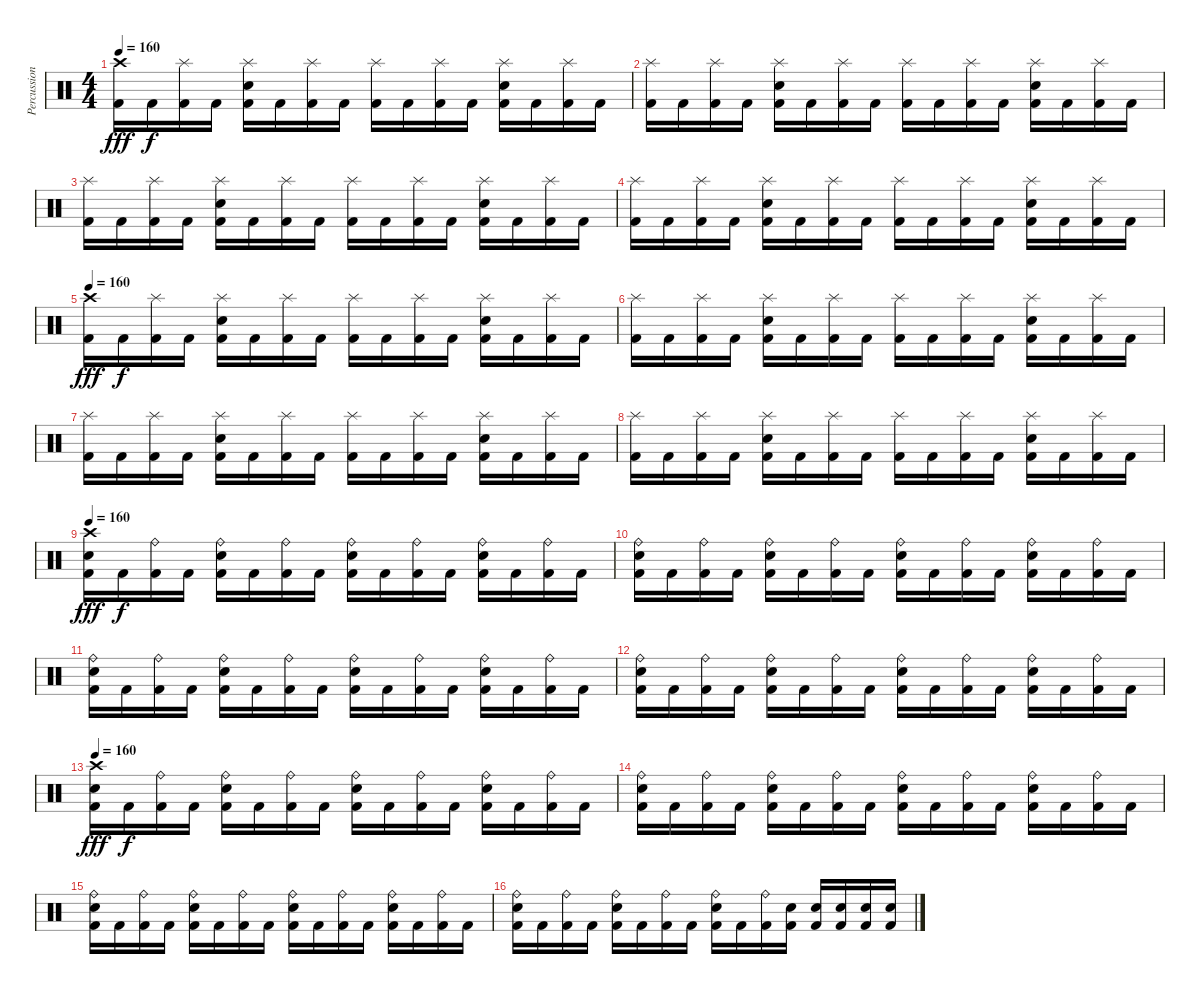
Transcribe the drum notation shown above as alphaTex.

\track ("Percussion" "Percussion") {instrument percussion}
\staff {score}
\articulation defaults
\ts (4 4)
\tempo 160
\clef neutral
\ks c
("Crash high (hit)" "Kick (hit) 2").16{dy fff} "Kick (hit) 2".16{dy f} ("Splash (hit)" "Kick (hit) 2").16 "Kick (hit) 2".16 ("Splash (hit)" "Electric Snare (hit)" "Kick (hit) 2").16 "Kick (hit) 2".16 ("Splash (hit)" "Kick (hit) 2").16 "Kick (hit) 2".16 ("Splash (hit)" "Kick (hit) 2").16 "Kick (hit) 2".16 ("Splash (hit)" "Kick (hit) 2").16 "Kick (hit) 2".16 ("Splash (hit)" "Electric Snare (hit)" "Kick (hit) 2").16 "Kick (hit) 2".16 ("Splash (hit)" "Kick (hit) 2").16 "Kick (hit) 2".16 |
("Splash (hit)" "Kick (hit) 2").16 "Kick (hit) 2".16 ("Splash (hit)" "Kick (hit) 2").16 "Kick (hit) 2".16 ("Splash (hit)" "Electric Snare (hit)" "Kick (hit) 2").16 "Kick (hit) 2".16 ("Splash (hit)" "Kick (hit) 2").16 "Kick (hit) 2".16 ("Splash (hit)" "Kick (hit) 2").16 "Kick (hit) 2".16 ("Splash (hit)" "Kick (hit) 2").16 "Kick (hit) 2".16 ("Splash (hit)" "Electric Snare (hit)" "Kick (hit) 2").16 "Kick (hit) 2".16 ("Splash (hit)" "Kick (hit) 2").16 "Kick (hit) 2".16 |
("Splash (hit)" "Kick (hit) 2").16 "Kick (hit) 2".16 ("Splash (hit)" "Kick (hit) 2").16 "Kick (hit) 2".16 ("Splash (hit)" "Electric Snare (hit)" "Kick (hit) 2").16 "Kick (hit) 2".16 ("Splash (hit)" "Kick (hit) 2").16 "Kick (hit) 2".16 ("Splash (hit)" "Kick (hit) 2").16 "Kick (hit) 2".16 ("Splash (hit)" "Kick (hit) 2").16 "Kick (hit) 2".16 ("Splash (hit)" "Electric Snare (hit)" "Kick (hit) 2").16 "Kick (hit) 2".16 ("Splash (hit)" "Kick (hit) 2").16 "Kick (hit) 2".16 |
("Splash (hit)" "Kick (hit) 2").16 "Kick (hit) 2".16 ("Splash (hit)" "Kick (hit) 2").16 "Kick (hit) 2".16 ("Splash (hit)" "Electric Snare (hit)" "Kick (hit) 2").16 "Kick (hit) 2".16 ("Splash (hit)" "Kick (hit) 2").16 "Kick (hit) 2".16 ("Splash (hit)" "Kick (hit) 2").16 "Kick (hit) 2".16 ("Splash (hit)" "Kick (hit) 2").16 "Kick (hit) 2".16 ("Splash (hit)" "Electric Snare (hit)" "Kick (hit) 2").16 "Kick (hit) 2".16 ("Splash (hit)" "Kick (hit) 2").16 "Kick (hit) 2".16 |
\tempo 160
("Crash high (hit)" "Kick (hit) 2").16{dy fff} "Kick (hit) 2".16{dy f} ("Splash (hit)" "Kick (hit) 2").16 "Kick (hit) 2".16 ("Splash (hit)" "Electric Snare (hit)" "Kick (hit) 2").16 "Kick (hit) 2".16 ("Splash (hit)" "Kick (hit) 2").16 "Kick (hit) 2".16 ("Splash (hit)" "Kick (hit) 2").16 "Kick (hit) 2".16 ("Splash (hit)" "Kick (hit) 2").16 "Kick (hit) 2".16 ("Splash (hit)" "Electric Snare (hit)" "Kick (hit) 2").16 "Kick (hit) 2".16 ("Splash (hit)" "Kick (hit) 2").16 "Kick (hit) 2".16 |
("Splash (hit)" "Kick (hit) 2").16 "Kick (hit) 2".16 ("Splash (hit)" "Kick (hit) 2").16 "Kick (hit) 2".16 ("Splash (hit)" "Electric Snare (hit)" "Kick (hit) 2").16 "Kick (hit) 2".16 ("Splash (hit)" "Kick (hit) 2").16 "Kick (hit) 2".16 ("Splash (hit)" "Kick (hit) 2").16 "Kick (hit) 2".16 ("Splash (hit)" "Kick (hit) 2").16 "Kick (hit) 2".16 ("Splash (hit)" "Electric Snare (hit)" "Kick (hit) 2").16 "Kick (hit) 2".16 ("Splash (hit)" "Kick (hit) 2").16 "Kick (hit) 2".16 |
("Splash (hit)" "Kick (hit) 2").16 "Kick (hit) 2".16 ("Splash (hit)" "Kick (hit) 2").16 "Kick (hit) 2".16 ("Splash (hit)" "Electric Snare (hit)" "Kick (hit) 2").16 "Kick (hit) 2".16 ("Splash (hit)" "Kick (hit) 2").16 "Kick (hit) 2".16 ("Splash (hit)" "Kick (hit) 2").16 "Kick (hit) 2".16 ("Splash (hit)" "Kick (hit) 2").16 "Kick (hit) 2".16 ("Splash (hit)" "Electric Snare (hit)" "Kick (hit) 2").16 "Kick (hit) 2".16 ("Splash (hit)" "Kick (hit) 2").16 "Kick (hit) 2".16 |
("Splash (hit)" "Kick (hit) 2").16 "Kick (hit) 2".16 ("Splash (hit)" "Kick (hit) 2").16 "Kick (hit) 2".16 ("Splash (hit)" "Electric Snare (hit)" "Kick (hit) 2").16 "Kick (hit) 2".16 ("Splash (hit)" "Kick (hit) 2").16 "Kick (hit) 2".16 ("Splash (hit)" "Kick (hit) 2").16 "Kick (hit) 2".16 ("Splash (hit)" "Kick (hit) 2").16 "Kick (hit) 2".16 ("Splash (hit)" "Electric Snare (hit)" "Kick (hit) 2").16 "Kick (hit) 2".16 ("Splash (hit)" "Kick (hit) 2").16 "Kick (hit) 2".16 |
\tempo 160
("Crash high (hit)" "Electric Snare (hit)" "Kick (hit) 2").16{dy fff} "Kick (hit) 2".16{dy f} ("Ride (bell)" "Kick (hit) 2").16 "Kick (hit) 2".16 ("Ride (bell)" "Electric Snare (hit)" "Kick (hit) 2").16 "Kick (hit) 2".16 ("Ride (bell)" "Kick (hit) 2").16 "Kick (hit) 2".16 ("Ride (bell)" "Electric Snare (hit)" "Kick (hit) 2").16 "Kick (hit) 2".16 ("Ride (bell)" "Kick (hit) 2").16 "Kick (hit) 2".16 ("Ride (bell)" "Electric Snare (hit)" "Kick (hit) 2").16 "Kick (hit) 2".16 ("Ride (bell)" "Kick (hit) 2").16 "Kick (hit) 2".16 |
("Ride (bell)" "Electric Snare (hit)" "Kick (hit) 2").16 "Kick (hit) 2".16 ("Ride (bell)" "Kick (hit) 2").16 "Kick (hit) 2".16 ("Ride (bell)" "Electric Snare (hit)" "Kick (hit) 2").16 "Kick (hit) 2".16 ("Ride (bell)" "Kick (hit) 2").16 "Kick (hit) 2".16 ("Ride (bell)" "Electric Snare (hit)" "Kick (hit) 2").16 "Kick (hit) 2".16 ("Ride (bell)" "Kick (hit) 2").16 "Kick (hit) 2".16 ("Ride (bell)" "Electric Snare (hit)" "Kick (hit) 2").16 "Kick (hit) 2".16 ("Ride (bell)" "Kick (hit) 2").16 "Kick (hit) 2".16 |
("Ride (bell)" "Electric Snare (hit)" "Kick (hit) 2").16 "Kick (hit) 2".16 ("Ride (bell)" "Kick (hit) 2").16 "Kick (hit) 2".16 ("Ride (bell)" "Electric Snare (hit)" "Kick (hit) 2").16 "Kick (hit) 2".16 ("Ride (bell)" "Kick (hit) 2").16 "Kick (hit) 2".16 ("Ride (bell)" "Electric Snare (hit)" "Kick (hit) 2").16 "Kick (hit) 2".16 ("Ride (bell)" "Kick (hit) 2").16 "Kick (hit) 2".16 ("Ride (bell)" "Electric Snare (hit)" "Kick (hit) 2").16 "Kick (hit) 2".16 ("Ride (bell)" "Kick (hit) 2").16 "Kick (hit) 2".16 |
("Ride (bell)" "Electric Snare (hit)" "Kick (hit) 2").16 "Kick (hit) 2".16 ("Ride (bell)" "Kick (hit) 2").16 "Kick (hit) 2".16 ("Ride (bell)" "Electric Snare (hit)" "Kick (hit) 2").16 "Kick (hit) 2".16 ("Ride (bell)" "Kick (hit) 2").16 "Kick (hit) 2".16 ("Ride (bell)" "Electric Snare (hit)" "Kick (hit) 2").16 "Kick (hit) 2".16 ("Ride (bell)" "Kick (hit) 2").16 "Kick (hit) 2".16 ("Ride (bell)" "Electric Snare (hit)" "Kick (hit) 2").16 "Kick (hit) 2".16 ("Ride (bell)" "Kick (hit) 2").16 "Kick (hit) 2".16 |
\tempo 160
("Crash high (hit)" "Electric Snare (hit)" "Kick (hit) 2").16{dy fff} "Kick (hit) 2".16{dy f} ("Ride (bell)" "Kick (hit) 2").16 "Kick (hit) 2".16 ("Ride (bell)" "Electric Snare (hit)" "Kick (hit) 2").16 "Kick (hit) 2".16 ("Ride (bell)" "Kick (hit) 2").16 "Kick (hit) 2".16 ("Ride (bell)" "Electric Snare (hit)" "Kick (hit) 2").16 "Kick (hit) 2".16 ("Ride (bell)" "Kick (hit) 2").16 "Kick (hit) 2".16 ("Ride (bell)" "Electric Snare (hit)" "Kick (hit) 2").16 "Kick (hit) 2".16 ("Ride (bell)" "Kick (hit) 2").16 "Kick (hit) 2".16 |
("Ride (bell)" "Electric Snare (hit)" "Kick (hit) 2").16 "Kick (hit) 2".16 ("Ride (bell)" "Kick (hit) 2").16 "Kick (hit) 2".16 ("Ride (bell)" "Electric Snare (hit)" "Kick (hit) 2").16 "Kick (hit) 2".16 ("Ride (bell)" "Kick (hit) 2").16 "Kick (hit) 2".16 ("Ride (bell)" "Electric Snare (hit)" "Kick (hit) 2").16 "Kick (hit) 2".16 ("Ride (bell)" "Kick (hit) 2").16 "Kick (hit) 2".16 ("Ride (bell)" "Electric Snare (hit)" "Kick (hit) 2").16 "Kick (hit) 2".16 ("Ride (bell)" "Kick (hit) 2").16 "Kick (hit) 2".16 |
("Ride (bell)" "Electric Snare (hit)" "Kick (hit) 2").16 "Kick (hit) 2".16 ("Ride (bell)" "Kick (hit) 2").16 "Kick (hit) 2".16 ("Ride (bell)" "Electric Snare (hit)" "Kick (hit) 2").16 "Kick (hit) 2".16 ("Ride (bell)" "Kick (hit) 2").16 "Kick (hit) 2".16 ("Ride (bell)" "Electric Snare (hit)" "Kick (hit) 2").16 "Kick (hit) 2".16 ("Ride (bell)" "Kick (hit) 2").16 "Kick (hit) 2".16 ("Ride (bell)" "Electric Snare (hit)" "Kick (hit) 2").16 "Kick (hit) 2".16 ("Ride (bell)" "Kick (hit) 2").16 "Kick (hit) 2".16 |
("Ride (bell)" "Electric Snare (hit)" "Kick (hit) 2").16 "Kick (hit) 2".16 ("Ride (bell)" "Kick (hit) 2").16 "Kick (hit) 2".16 ("Ride (bell)" "Electric Snare (hit)" "Kick (hit) 2").16 "Kick (hit) 2".16 ("Ride (bell)" "Kick (hit) 2").16 "Kick (hit) 2".16 ("Ride (bell)" "Electric Snare (hit)" "Kick (hit) 2").16 "Kick (hit) 2".16 ("Ride (bell)" "Kick (hit) 2").16 ("Electric Snare (hit)" "Kick (hit) 2").16 ("Electric Snare (hit)" "Kick (hit) 2").16 ("Electric Snare (hit)" "Kick (hit) 2").16 ("Electric Snare (hit)" "Kick (hit) 2").16 ("Electric Snare (hit)" "Kick (hit) 2").16
